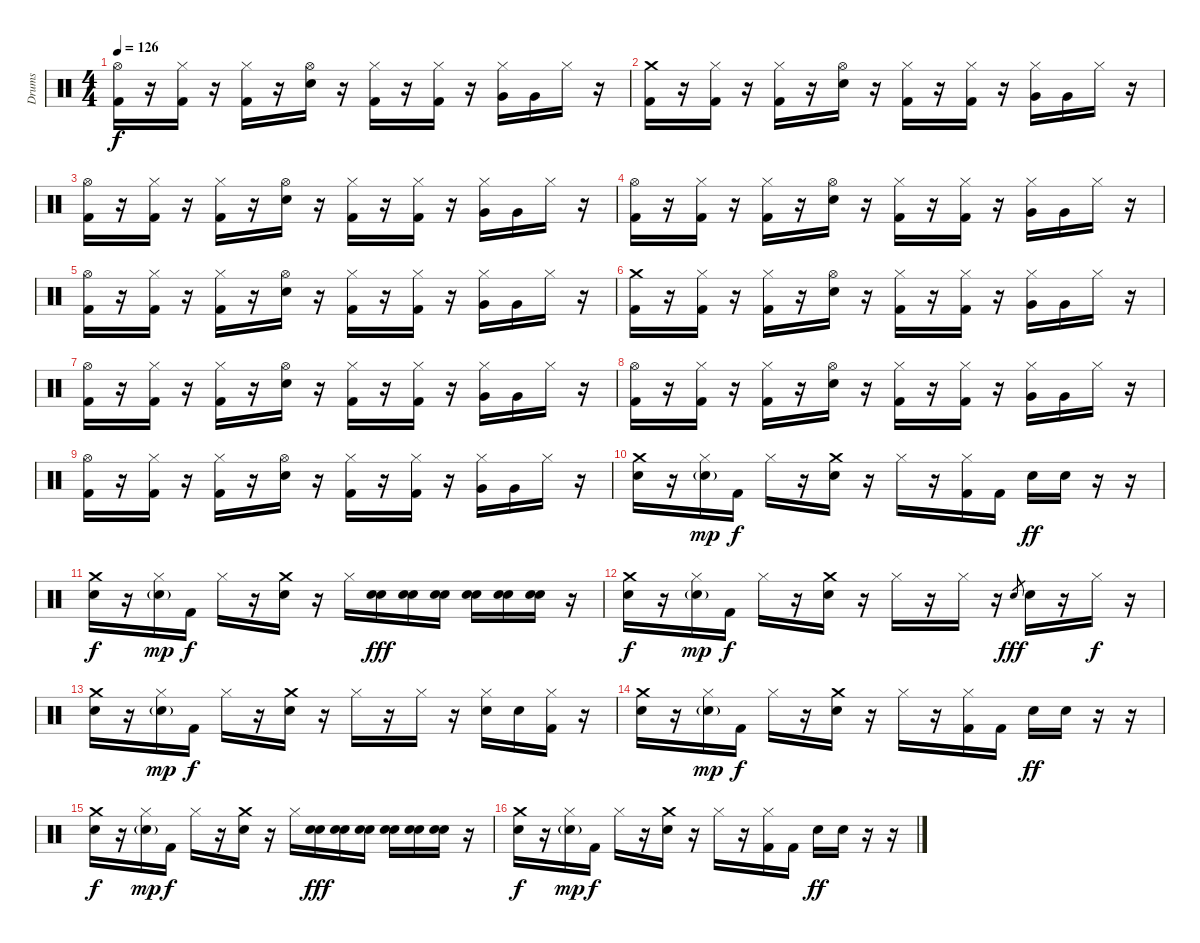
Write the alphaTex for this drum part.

\track ("Drums" "Drums") {instrument percussion}
\staff {score}
\articulation defaults
\ts (4 4)
\tempo 126
\clef neutral
\ks c
("Hi-Hat (open)" "Kick (hit) 2").16{dy f} r.16 ("Hi-Hat (closed)" "Kick (hit) 2").16 r.16 ("Hi-Hat (closed)" "Kick (hit) 2").16 r.16 ("Hi-Hat (open)" "Snare (hit) 2").16 r.16 ("Hi-Hat (closed)" "Kick (hit) 2").16 r.16 ("Hi-Hat (closed)" "Kick (hit) 2").16 r.16 ("Hi-Hat (closed)" "Very Low Tom (hit)").16 "Very Low Tom (hit)".16 "Hi-Hat (closed)".16 r.16 |
("Crash medium (hit)" "Kick (hit) 2").16 r.16 ("Hi-Hat (closed)" "Kick (hit) 2").16 r.16 ("Hi-Hat (closed)" "Kick (hit) 2").16 r.16 ("Hi-Hat (open)" "Snare (hit) 2").16 r.16 ("Hi-Hat (closed)" "Kick (hit) 2").16 r.16 ("Hi-Hat (closed)" "Kick (hit) 2").16 r.16 ("Hi-Hat (closed)" "Very Low Tom (hit)").16 "Very Low Tom (hit)".16 "Hi-Hat (closed)".16 r.16 |
("Hi-Hat (open)" "Kick (hit) 2").16 r.16 ("Hi-Hat (closed)" "Kick (hit) 2").16 r.16 ("Hi-Hat (closed)" "Kick (hit) 2").16 r.16 ("Hi-Hat (open)" "Snare (hit) 2").16 r.16 ("Hi-Hat (closed)" "Kick (hit) 2").16 r.16 ("Hi-Hat (closed)" "Kick (hit) 2").16 r.16 ("Hi-Hat (closed)" "Very Low Tom (hit)").16 "Very Low Tom (hit)".16 "Hi-Hat (closed)".16 r.16 |
("Hi-Hat (open)" "Kick (hit) 2").16 r.16 ("Hi-Hat (closed)" "Kick (hit) 2").16 r.16 ("Hi-Hat (closed)" "Kick (hit) 2").16 r.16 ("Hi-Hat (open)" "Snare (hit) 2").16 r.16 ("Hi-Hat (closed)" "Kick (hit) 2").16 r.16 ("Hi-Hat (closed)" "Kick (hit) 2").16 r.16 ("Hi-Hat (closed)" "Very Low Tom (hit)").16 "Very Low Tom (hit)".16 "Hi-Hat (closed)".16 r.16 |
("Hi-Hat (open)" "Kick (hit) 2").16 r.16 ("Hi-Hat (closed)" "Kick (hit) 2").16 r.16 ("Hi-Hat (closed)" "Kick (hit) 2").16 r.16 ("Hi-Hat (open)" "Snare (hit) 2").16 r.16 ("Hi-Hat (closed)" "Kick (hit) 2").16 r.16 ("Hi-Hat (closed)" "Kick (hit) 2").16 r.16 ("Hi-Hat (closed)" "Very Low Tom (hit)").16 "Very Low Tom (hit)".16 "Hi-Hat (closed)".16 r.16 |
("Crash medium (hit)" "Kick (hit) 2").16 r.16 ("Hi-Hat (closed)" "Kick (hit) 2").16 r.16 ("Hi-Hat (closed)" "Kick (hit) 2").16 r.16 ("Hi-Hat (open)" "Snare (hit) 2").16 r.16 ("Hi-Hat (closed)" "Kick (hit) 2").16 r.16 ("Hi-Hat (closed)" "Kick (hit) 2").16 r.16 ("Hi-Hat (closed)" "Very Low Tom (hit)").16 "Very Low Tom (hit)".16 "Hi-Hat (closed)".16 r.16 |
("Hi-Hat (open)" "Kick (hit) 2").16 r.16 ("Hi-Hat (closed)" "Kick (hit) 2").16 r.16 ("Hi-Hat (closed)" "Kick (hit) 2").16 r.16 ("Hi-Hat (open)" "Snare (hit) 2").16 r.16 ("Hi-Hat (closed)" "Kick (hit) 2").16 r.16 ("Hi-Hat (closed)" "Kick (hit) 2").16 r.16 ("Hi-Hat (closed)" "Very Low Tom (hit)").16 "Very Low Tom (hit)".16 "Hi-Hat (closed)".16 r.16 |
("Hi-Hat (open)" "Kick (hit) 2").16 r.16 ("Hi-Hat (closed)" "Kick (hit) 2").16 r.16 ("Hi-Hat (closed)" "Kick (hit) 2").16 r.16 ("Hi-Hat (open)" "Snare (hit) 2").16 r.16 ("Hi-Hat (closed)" "Kick (hit) 2").16 r.16 ("Hi-Hat (closed)" "Kick (hit) 2").16 r.16 ("Hi-Hat (closed)" "Very Low Tom (hit)").16 "Very Low Tom (hit)".16 "Hi-Hat (closed)".16 r.16 |
("Hi-Hat (open)" "Kick (hit) 2").16 r.16 ("Hi-Hat (closed)" "Kick (hit) 2").16 r.16 ("Hi-Hat (closed)" "Kick (hit) 2").16 r.16 ("Hi-Hat (open)" "Snare (hit) 2").16 r.16 ("Hi-Hat (closed)" "Kick (hit) 2").16 r.16 ("Hi-Hat (closed)" "Kick (hit) 2").16 r.16 ("Hi-Hat (closed)" "Very Low Tom (hit)").16 "Very Low Tom (hit)".16 "Hi-Hat (closed)".16 r.16 |
("Crash medium (hit)" "Snare (hit) 2").16 r.16 ("Hi-Hat (closed)" "Snare (hit) 2"{g}).16{dy mp} "Kick (hit) 2".16{dy f} "Hi-Hat (closed)".16 r.16 ("Crash medium (hit)" "Snare (hit) 2").16 r.16 "Hi-Hat (closed)".16 r.16 ("Hi-Hat (closed)" "Kick (hit) 2").16 "Kick (hit) 2".16 "Snare (hit) 2".16{dy ff} "Snare (hit) 2".16 r.16 r.16 |
("Crash medium (hit)" "Snare (hit) 2").16{dy f} r.16 ("Hi-Hat (closed)" "Snare (hit) 2"{g}).16{dy mp} "Kick (hit) 2".16{dy f} "Hi-Hat (closed)".16 r.16 ("Crash medium (hit)" "Snare (hit) 2").16 r.16 "Hi-Hat (closed)".16 ("Snare (hit) 2" "Snare (hit) 2").16{dy fff} ("Snare (hit) 2" "Snare (hit) 2").16 ("Snare (hit) 2" "Snare (hit) 2").16 ("Snare (hit) 2" "Snare (hit) 2").16 ("Snare (hit) 2" "Snare (hit) 2").16 ("Snare (hit) 2" "Snare (hit) 2").16 r.16 |
("Crash medium (hit)" "Snare (hit) 2").16{dy f} r.16 ("Hi-Hat (closed)" "Snare (hit) 2"{g}).16{dy mp} "Kick (hit) 2".16{dy f} "Hi-Hat (closed)".16 r.16 ("Crash medium (hit)" "Snare (hit) 2").16 r.16 "Hi-Hat (closed)".16 r.16 "Hi-Hat (closed)".16 r.16 "Snare (hit) 2".8{gr dy fff} "Snare (hit) 2".16 r.16 "Hi-Hat (closed)".16{dy f} r.16 |
("Crash medium (hit)" "Snare (hit) 2").16 r.16 ("Hi-Hat (closed)" "Snare (hit) 2"{g}).16{dy mp} "Kick (hit) 2".16{dy f} "Hi-Hat (closed)".16 r.16 ("Crash medium (hit)" "Snare (hit) 2").16 r.16 "Hi-Hat (closed)".16 r.16 "Hi-Hat (closed)".16 r.16 ("Hi-Hat (closed)" "Snare (hit) 2").16 "Snare (hit) 2".16 ("Hi-Hat (closed)" "Kick (hit) 2").16 r.16 |
("Crash medium (hit)" "Snare (hit) 2").16 r.16 ("Hi-Hat (closed)" "Snare (hit) 2"{g}).16{dy mp} "Kick (hit) 2".16{dy f} "Hi-Hat (closed)".16 r.16 ("Crash medium (hit)" "Snare (hit) 2").16 r.16 "Hi-Hat (closed)".16 r.16 ("Hi-Hat (closed)" "Kick (hit) 2").16 "Kick (hit) 2".16 "Snare (hit) 2".16{dy ff} "Snare (hit) 2".16 r.16 r.16 |
("Crash medium (hit)" "Snare (hit) 2").16{dy f} r.16 ("Hi-Hat (closed)" "Snare (hit) 2"{g}).16{dy mp} "Kick (hit) 2".16{dy f} "Hi-Hat (closed)".16 r.16 ("Crash medium (hit)" "Snare (hit) 2").16 r.16 "Hi-Hat (closed)".16 ("Snare (hit) 2" "Snare (hit) 2").16{dy fff} ("Snare (hit) 2" "Snare (hit) 2").16 ("Snare (hit) 2" "Snare (hit) 2").16 ("Snare (hit) 2" "Snare (hit) 2").16 ("Snare (hit) 2" "Snare (hit) 2").16 ("Snare (hit) 2" "Snare (hit) 2").16 r.16 |
("Crash medium (hit)" "Snare (hit) 2").16{dy f} r.16 ("Hi-Hat (closed)" "Snare (hit) 2"{g}).16{dy mp} "Kick (hit) 2".16{dy f} "Hi-Hat (closed)".16 r.16 ("Crash medium (hit)" "Snare (hit) 2").16 r.16 "Hi-Hat (closed)".16 r.16 ("Hi-Hat (closed)" "Kick (hit) 2").16 "Kick (hit) 2".16 "Snare (hit) 2".16{dy ff} "Snare (hit) 2".16 r.16 r.16
